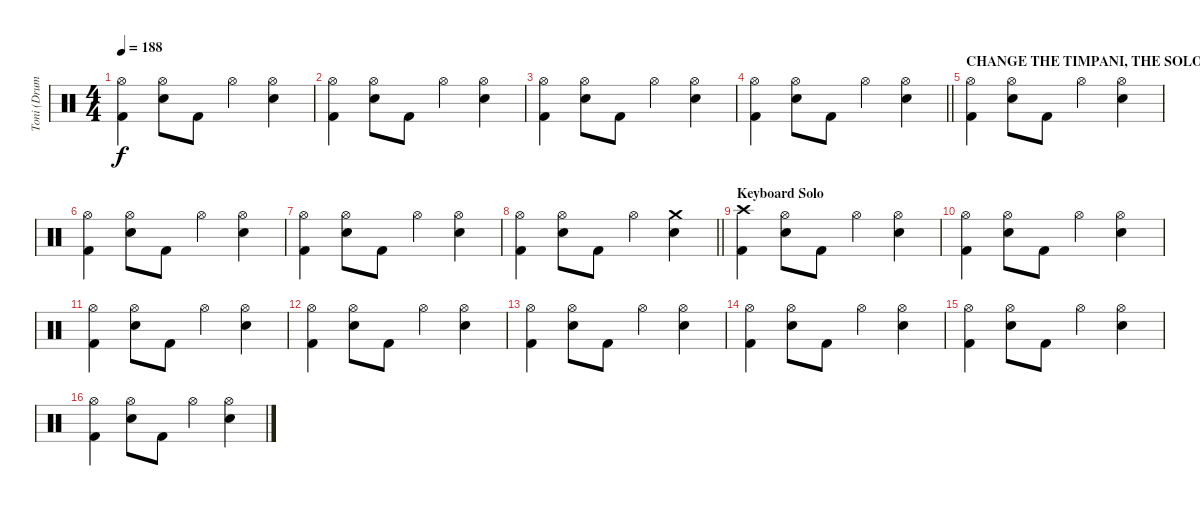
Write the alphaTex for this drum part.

\track ("Toni (Drums)" "Toni (Drum") {instrument percussion}
\staff {score}
\articulation defaults
\ts (4 4)
\tempo 188
\clef neutral
\ks c
("Hi-Hat (open)" "Kick (hit) 2").4{dy f} ("Hi-Hat (open)" "Electric Snare (hit)").8 "Kick (hit) 2".8 "Hi-Hat (open)".4 ("Hi-Hat (open)" "Electric Snare (hit)").4 |
("Hi-Hat (open)" "Kick (hit) 2").4 ("Hi-Hat (open)" "Electric Snare (hit)").8 "Kick (hit) 2".8 "Hi-Hat (open)".4 ("Hi-Hat (open)" "Electric Snare (hit)").4 |
("Hi-Hat (open)" "Kick (hit) 2").4 ("Hi-Hat (open)" "Electric Snare (hit)").8 "Kick (hit) 2".8 "Hi-Hat (open)".4 ("Hi-Hat (open)" "Electric Snare (hit)").4 |
\barLineRight lightlight
("Hi-Hat (open)" "Kick (hit) 2").4 ("Hi-Hat (open)" "Electric Snare (hit)").8 "Kick (hit) 2".8 "Hi-Hat (open)".4 ("Hi-Hat (open)" "Electric Snare (hit)").4 |
\section ("" "CHANGE THE TIMPANI, THE SOLO!!")
("Hi-Hat (open)" "Kick (hit) 2").4 ("Hi-Hat (open)" "Electric Snare (hit)").8 "Kick (hit) 2".8 "Hi-Hat (open)".4 ("Hi-Hat (open)" "Electric Snare (hit)").4 |
("Hi-Hat (open)" "Kick (hit) 2").4 ("Hi-Hat (open)" "Electric Snare (hit)").8 "Kick (hit) 2".8 "Hi-Hat (open)".4 ("Hi-Hat (open)" "Electric Snare (hit)").4 |
("Hi-Hat (open)" "Kick (hit) 2").4 ("Hi-Hat (open)" "Electric Snare (hit)").8 "Kick (hit) 2".8 "Hi-Hat (open)".4 ("Hi-Hat (open)" "Electric Snare (hit)").4 |
\barLineRight lightlight
("Hi-Hat (open)" "Kick (hit) 2").4 ("Hi-Hat (open)" "Electric Snare (hit)").8 "Kick (hit) 2".8 "Hi-Hat (open)".4 ("Crash medium (hit)" "Electric Snare (hit)").4 |
\section ("" "Keyboard Solo")
("Crash high (hit)" "Kick (hit) 2").4 ("Hi-Hat (open)" "Electric Snare (hit)").8 "Kick (hit) 2".8 "Hi-Hat (open)".4 ("Hi-Hat (open)" "Electric Snare (hit)").4 |
("Hi-Hat (open)" "Kick (hit) 2").4 ("Hi-Hat (open)" "Electric Snare (hit)").8 "Kick (hit) 2".8 "Hi-Hat (open)".4 ("Hi-Hat (open)" "Electric Snare (hit)").4 |
("Hi-Hat (open)" "Kick (hit) 2").4 ("Hi-Hat (open)" "Electric Snare (hit)").8 "Kick (hit) 2".8 "Hi-Hat (open)".4 ("Hi-Hat (open)" "Electric Snare (hit)").4 |
("Hi-Hat (open)" "Kick (hit) 2").4 ("Hi-Hat (open)" "Electric Snare (hit)").8 "Kick (hit) 2".8 "Hi-Hat (open)".4 ("Hi-Hat (open)" "Electric Snare (hit)").4 |
("Hi-Hat (open)" "Kick (hit) 2").4 ("Hi-Hat (open)" "Electric Snare (hit)").8 "Kick (hit) 2".8 "Hi-Hat (open)".4 ("Hi-Hat (open)" "Electric Snare (hit)").4 |
("Hi-Hat (open)" "Kick (hit) 2").4 ("Hi-Hat (open)" "Electric Snare (hit)").8 "Kick (hit) 2".8 "Hi-Hat (open)".4 ("Hi-Hat (open)" "Electric Snare (hit)").4 |
("Hi-Hat (open)" "Kick (hit) 2").4 ("Hi-Hat (open)" "Electric Snare (hit)").8 "Kick (hit) 2".8 "Hi-Hat (open)".4 ("Hi-Hat (open)" "Electric Snare (hit)").4 |
("Hi-Hat (open)" "Kick (hit) 2").4 ("Hi-Hat (open)" "Electric Snare (hit)").8 "Kick (hit) 2".8 "Hi-Hat (open)".4 ("Hi-Hat (open)" "Electric Snare (hit)").4
